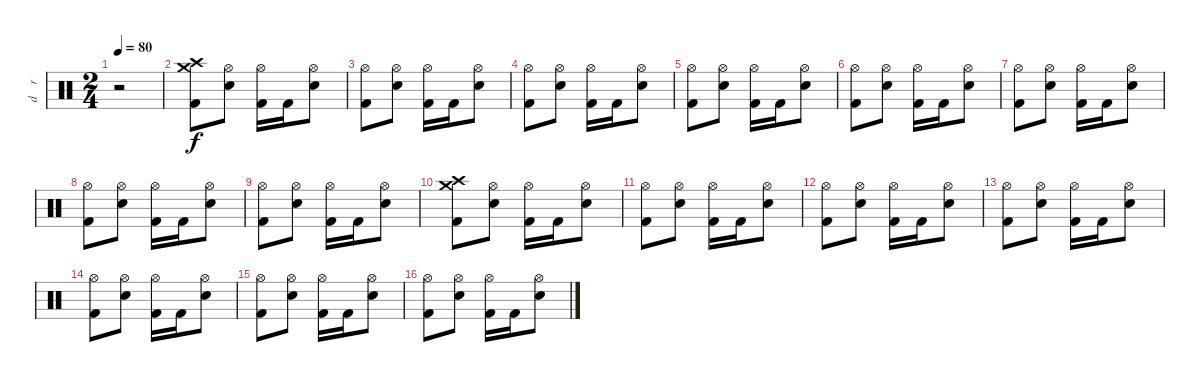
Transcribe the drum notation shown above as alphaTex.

\track ("d    r     u    m    s" "d    r    ") {instrument percussion}
\staff {score}
\articulation defaults
\ts (2 4)
\tempo 80
\clef neutral
\ks c
r.2{dy f} |
("Crash high (hit)" "Crash medium (hit)" "Kick (hit) 2").8 ("Hi-Hat (open)" "Electric Snare (hit)").8 ("Hi-Hat (open)" "Kick (hit) 2").16 "Kick (hit) 2".16 ("Hi-Hat (open)" "Electric Snare (hit)").8 |
("Hi-Hat (open)" "Kick (hit) 2").8 ("Hi-Hat (open)" "Electric Snare (hit)").8 ("Hi-Hat (open)" "Kick (hit) 2").16 "Kick (hit) 2".16 ("Hi-Hat (open)" "Electric Snare (hit)").8 |
("Hi-Hat (open)" "Kick (hit) 2").8 ("Hi-Hat (open)" "Electric Snare (hit)").8 ("Hi-Hat (open)" "Kick (hit) 2").16 "Kick (hit) 2".16 ("Hi-Hat (open)" "Electric Snare (hit)").8 |
("Hi-Hat (open)" "Kick (hit) 2").8 ("Hi-Hat (open)" "Electric Snare (hit)").8 ("Hi-Hat (open)" "Kick (hit) 2").16 "Kick (hit) 2".16 ("Hi-Hat (open)" "Electric Snare (hit)").8 |
("Hi-Hat (open)" "Kick (hit) 2").8 ("Hi-Hat (open)" "Electric Snare (hit)").8 ("Hi-Hat (open)" "Kick (hit) 2").16 "Kick (hit) 2".16 ("Hi-Hat (open)" "Electric Snare (hit)").8 |
("Hi-Hat (open)" "Kick (hit) 2").8 ("Hi-Hat (open)" "Electric Snare (hit)").8 ("Hi-Hat (open)" "Kick (hit) 2").16 "Kick (hit) 2".16 ("Hi-Hat (open)" "Electric Snare (hit)").8 |
("Hi-Hat (open)" "Kick (hit) 2").8 ("Hi-Hat (open)" "Electric Snare (hit)").8 ("Hi-Hat (open)" "Kick (hit) 2").16 "Kick (hit) 2".16 ("Hi-Hat (open)" "Electric Snare (hit)").8 |
("Hi-Hat (open)" "Kick (hit) 2").8 ("Hi-Hat (open)" "Electric Snare (hit)").8 ("Hi-Hat (open)" "Kick (hit) 2").16 "Kick (hit) 2".16 ("Hi-Hat (open)" "Electric Snare (hit)").8 |
("Crash high (hit)" "Crash medium (hit)" "Kick (hit) 2").8 ("Hi-Hat (open)" "Electric Snare (hit)").8 ("Hi-Hat (open)" "Kick (hit) 2").16 "Kick (hit) 2".16 ("Hi-Hat (open)" "Electric Snare (hit)").8 |
("Hi-Hat (open)" "Kick (hit) 2").8 ("Hi-Hat (open)" "Electric Snare (hit)").8 ("Hi-Hat (open)" "Kick (hit) 2").16 "Kick (hit) 2".16 ("Hi-Hat (open)" "Electric Snare (hit)").8 |
("Hi-Hat (open)" "Kick (hit) 2").8 ("Hi-Hat (open)" "Electric Snare (hit)").8 ("Hi-Hat (open)" "Kick (hit) 2").16 "Kick (hit) 2".16 ("Hi-Hat (open)" "Electric Snare (hit)").8 |
("Hi-Hat (open)" "Kick (hit) 2").8 ("Hi-Hat (open)" "Electric Snare (hit)").8 ("Hi-Hat (open)" "Kick (hit) 2").16 "Kick (hit) 2".16 ("Hi-Hat (open)" "Electric Snare (hit)").8 |
("Hi-Hat (open)" "Kick (hit) 2").8 ("Hi-Hat (open)" "Electric Snare (hit)").8 ("Hi-Hat (open)" "Kick (hit) 2").16 "Kick (hit) 2".16 ("Hi-Hat (open)" "Electric Snare (hit)").8 |
("Hi-Hat (open)" "Kick (hit) 2").8 ("Hi-Hat (open)" "Electric Snare (hit)").8 ("Hi-Hat (open)" "Kick (hit) 2").16 "Kick (hit) 2".16 ("Hi-Hat (open)" "Electric Snare (hit)").8 |
("Hi-Hat (open)" "Kick (hit) 2").8 ("Hi-Hat (open)" "Electric Snare (hit)").8 ("Hi-Hat (open)" "Kick (hit) 2").16 "Kick (hit) 2".16 ("Hi-Hat (open)" "Electric Snare (hit)").8
